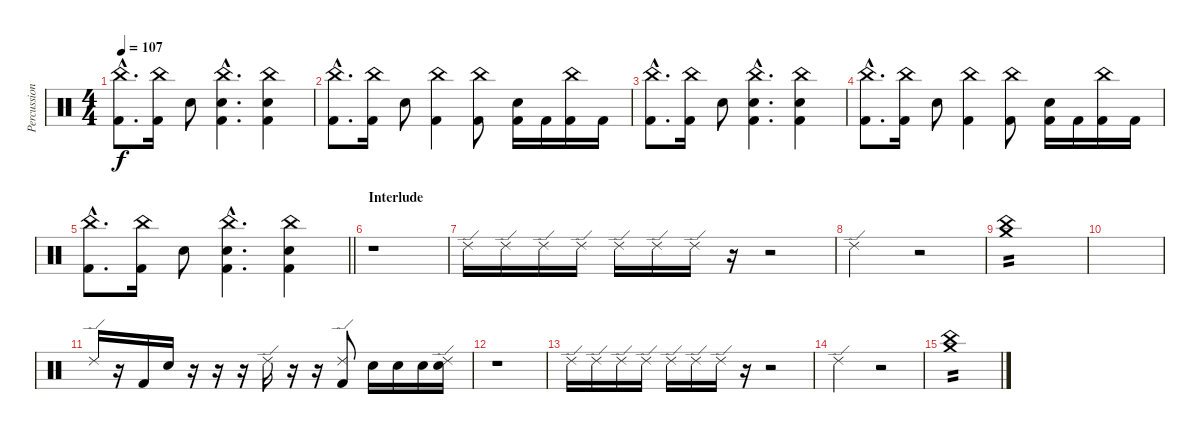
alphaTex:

\track ("Percussion" "Percussion") {instrument percussion}
\staff {score}
\articulation defaults
\ts (4 4)
\tempo 107
\clef neutral
\ks c
("China (hit)"{hac} "Kick (hit) 2"{hac}).8{d dy f} ("China (hit)" "Kick (hit) 2").16 "Electric Snare (hit)".8 ("China (hit)"{hac} "Electric Snare (hit)"{hac} "Kick (hit) 2"{hac}).4{d} ("China (hit)" "Electric Snare (hit)" "Kick (hit) 2").4 |
("China (hit)"{hac} "Kick (hit) 2"{hac}).8{d} ("China (hit)" "Kick (hit) 2").16 "Electric Snare (hit)".8 ("China (hit)" "Kick (hit) 2").4 ("China (hit)" "Kick (hit) 2").8 ("Electric Snare (hit)" "Kick (hit) 2").16 "Kick (hit) 2".16 ("China (hit)" "Kick (hit) 2").16 "Kick (hit) 2".16 |
("China (hit)"{hac} "Kick (hit) 2"{hac}).8{d} ("China (hit)" "Kick (hit) 2").16 "Electric Snare (hit)".8 ("China (hit)"{hac} "Electric Snare (hit)"{hac} "Kick (hit) 2"{hac}).4{d} ("China (hit)" "Electric Snare (hit)" "Kick (hit) 2").4 |
("China (hit)"{hac} "Kick (hit) 2"{hac}).8{d} ("China (hit)" "Kick (hit) 2").16 "Electric Snare (hit)".8 ("China (hit)" "Kick (hit) 2").4 ("China (hit)" "Kick (hit) 2").8 ("Electric Snare (hit)" "Kick (hit) 2").16 "Kick (hit) 2".16 ("China (hit)" "Kick (hit) 2").16 "Kick (hit) 2".16 |
\barLineRight lightlight
("China (hit)"{hac} "Kick (hit) 2"{hac}).8{d} ("China (hit)" "Kick (hit) 2").16 "Electric Snare (hit)".8 ("China (hit)"{hac} "Electric Snare (hit)"{hac} "Kick (hit) 2"{hac}).4{d} ("China (hit)" "Electric Snare (hit)" "Kick (hit) 2").4 |
\section ("" "Interlude")
r.1{volume 0} |
"Ride (edge) 2".16{volume 13} "Ride (edge) 2".16 "Ride (edge) 2".16 "Ride (edge) 2".16 "Ride (edge) 2".16 "Ride (edge) 2".16 "Ride (edge) 2".16 r.16 r.2 |
"Ride (edge) 2".2 r.2{volume 0} |
("Crash medium (hit)" "China (hit)").1{tp 2 volume 15} |
|
"Ride (edge) 2".16 r.16 "Kick (hit) 2".16 "Electric Snare (hit)".16 r.16 r.16 r.16 "Ride (edge) 2".16 r.16 r.16 ("Ride (edge) 2" "Kick (hit) 2").8 "Electric Snare (hit)".16 "Electric Snare (hit)".16 "Electric Snare (hit)".16 ("Ride (edge) 2" "Electric Snare (hit)").16 |
r.1{volume 0} |
"Ride (edge) 2".16{volume 13} "Ride (edge) 2".16 "Ride (edge) 2".16 "Ride (edge) 2".16 "Ride (edge) 2".16 "Ride (edge) 2".16 "Ride (edge) 2".16 r.16 r.2 |
"Ride (edge) 2".2 r.2{volume 0} |
("Crash medium (hit)" "China (hit)").1{tp 2 volume 15}
